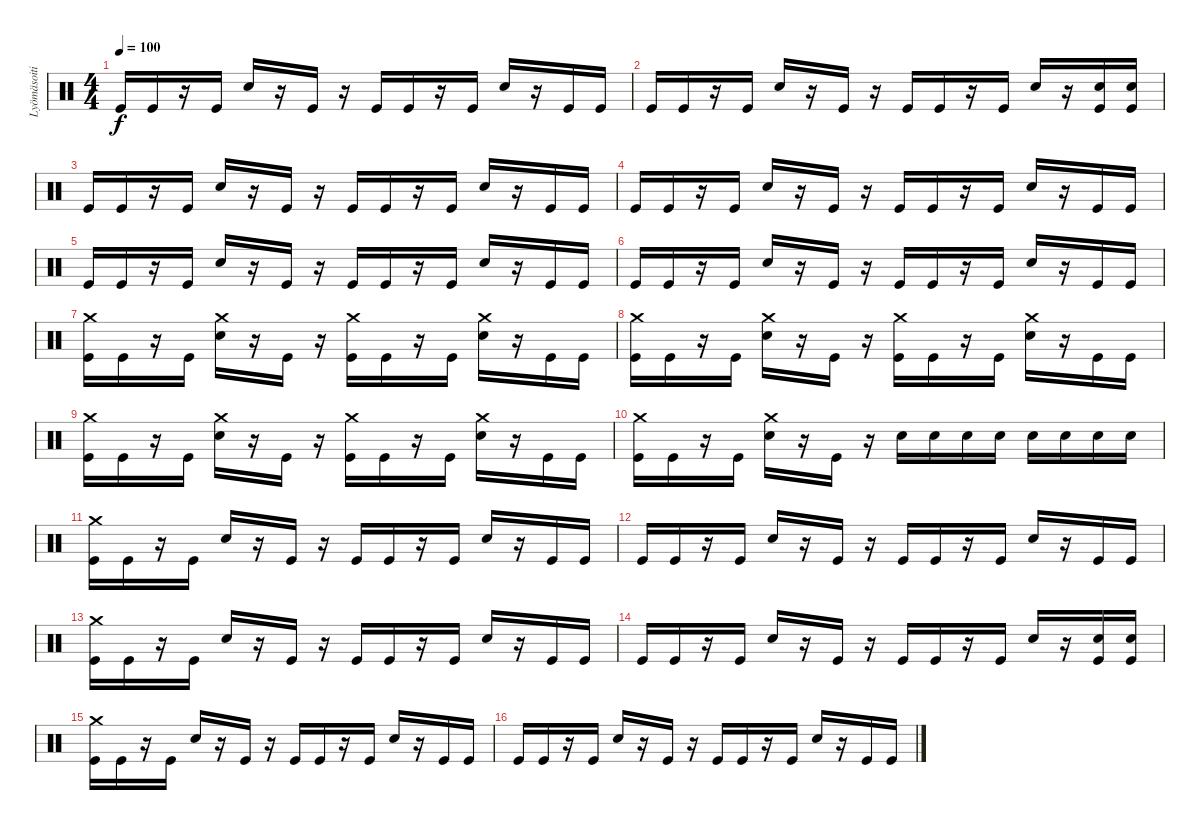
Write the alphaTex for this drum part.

\track ("Lyömäsoitin" "Lyömäsoiti") {instrument percussion}
\staff {score}
\articulation defaults
\ts (4 4)
\tempo 100
\clef neutral
\ks c "Kick (hit)".16{dy f} "Kick (hit)".16
r.16 "Kick (hit)".16 "Electric Snare (hit)".16 r.16 "Kick (hit)".16 r.16 "Kick (hit)".16 "Kick (hit)".16 r.16 "Kick (hit)".16 "Electric Snare (hit)".16 r.16 "Kick (hit)".16 "Kick (hit)".16 |
"Kick (hit)".16 "Kick (hit)".16 r.16 "Kick (hit)".16 "Electric Snare (hit)".16 r.16 "Kick (hit)".16 r.16 "Kick (hit)".16 "Kick (hit)".16 r.16 "Kick (hit)".16 "Electric Snare (hit)".16 r.16 ("Kick (hit)" "Electric Snare (hit)").16 ("Kick (hit)" "Electric Snare (hit)").16 |
"Kick (hit)".16 "Kick (hit)".16 r.16 "Kick (hit)".16 "Electric Snare (hit)".16 r.16 "Kick (hit)".16 r.16 "Kick (hit)".16 "Kick (hit)".16 r.16 "Kick (hit)".16 "Electric Snare (hit)".16 r.16 "Kick (hit)".16 "Kick (hit)".16 |
"Kick (hit)".16 "Kick (hit)".16 r.16 "Kick (hit)".16 "Electric Snare (hit)".16 r.16 "Kick (hit)".16 r.16 "Kick (hit)".16 "Kick (hit)".16 r.16 "Kick (hit)".16 "Electric Snare (hit)".16 r.16 "Kick (hit)".16 "Kick (hit)".16 |
"Kick (hit)".16 "Kick (hit)".16 r.16 "Kick (hit)".16 "Electric Snare (hit)".16 r.16 "Kick (hit)".16 r.16 "Kick (hit)".16 "Kick (hit)".16 r.16 "Kick (hit)".16 "Electric Snare (hit)".16 r.16 "Kick (hit)".16 "Kick (hit)".16 |
"Kick (hit)".16 "Kick (hit)".16 r.16 "Kick (hit)".16 "Electric Snare (hit)".16 r.16 "Kick (hit)".16 r.16 "Kick (hit)".16 "Kick (hit)".16 r.16 "Kick (hit)".16 "Electric Snare (hit)".16 r.16 "Kick (hit)".16 "Kick (hit)".16 |
("Kick (hit)" "Crash medium (hit)").16 "Kick (hit)".16 r.16 "Kick (hit)".16 ("Electric Snare (hit)" "Crash medium (hit)").16 r.16 "Kick (hit)".16 r.16 ("Kick (hit)" "Crash medium (hit)").16 "Kick (hit)".16 r.16 "Kick (hit)".16 ("Electric Snare (hit)" "Crash medium (hit)").16 r.16 "Kick (hit)".16 "Kick (hit)".16 |
("Kick (hit)" "Crash medium (hit)").16 "Kick (hit)".16 r.16 "Kick (hit)".16 ("Electric Snare (hit)" "Crash medium (hit)").16 r.16 "Kick (hit)".16 r.16 ("Kick (hit)" "Crash medium (hit)").16 "Kick (hit)".16 r.16 "Kick (hit)".16 ("Electric Snare (hit)" "Crash medium (hit)").16 r.16 "Kick (hit)".16 "Kick (hit)".16 |
("Kick (hit)" "Crash medium (hit)").16 "Kick (hit)".16 r.16 "Kick (hit)".16 ("Electric Snare (hit)" "Crash medium (hit)").16 r.16 "Kick (hit)".16 r.16 ("Kick (hit)" "Crash medium (hit)").16 "Kick (hit)".16 r.16 "Kick (hit)".16 ("Electric Snare (hit)" "Crash medium (hit)").16 r.16 "Kick (hit)".16 "Kick (hit)".16 |
("Kick (hit)" "Crash medium (hit)").16 "Kick (hit)".16 r.16 "Kick (hit)".16 ("Electric Snare (hit)" "Crash medium (hit)").16 r.16 "Kick (hit)".16 r.16 "Electric Snare (hit)".16 "Electric Snare (hit)".16 "Electric Snare (hit)".16 "Electric Snare (hit)".16 "Electric Snare (hit)".16 "Electric Snare (hit)".16 "Electric Snare (hit)".16 "Electric Snare (hit)".16 |
("Crash medium (hit)" "Kick (hit)").16 "Kick (hit)".16 r.16 "Kick (hit)".16 "Electric Snare (hit)".16 r.16 "Kick (hit)".16 r.16 "Kick (hit)".16 "Kick (hit)".16 r.16 "Kick (hit)".16 "Electric Snare (hit)".16 r.16 "Kick (hit)".16 "Kick (hit)".16 |
"Kick (hit)".16 "Kick (hit)".16 r.16 "Kick (hit)".16 "Electric Snare (hit)".16 r.16 "Kick (hit)".16 r.16 "Kick (hit)".16 "Kick (hit)".16 r.16 "Kick (hit)".16 "Electric Snare (hit)".16 r.16 "Kick (hit)".16 "Kick (hit)".16 |
("Crash medium (hit)" "Kick (hit)").16 "Kick (hit)".16 r.16 "Kick (hit)".16 "Electric Snare (hit)".16 r.16 "Kick (hit)".16 r.16 "Kick (hit)".16 "Kick (hit)".16 r.16 "Kick (hit)".16 "Electric Snare (hit)".16 r.16 "Kick (hit)".16 "Kick (hit)".16 |
"Kick (hit)".16 "Kick (hit)".16 r.16 "Kick (hit)".16 "Electric Snare (hit)".16 r.16 "Kick (hit)".16 r.16 "Kick (hit)".16 "Kick (hit)".16 r.16 "Kick (hit)".16 "Electric Snare (hit)".16 r.16 ("Kick (hit)" "Electric Snare (hit)").16 ("Kick (hit)" "Electric Snare (hit)").16 |
("Crash medium (hit)" "Kick (hit)").16 "Kick (hit)".16 r.16 "Kick (hit)".16 "Electric Snare (hit)".16 r.16 "Kick (hit)".16 r.16 "Kick (hit)".16 "Kick (hit)".16 r.16 "Kick (hit)".16 "Electric Snare (hit)".16 r.16 "Kick (hit)".16 "Kick (hit)".16 |
"Kick (hit)".16 "Kick (hit)".16 r.16 "Kick (hit)".16 "Electric Snare (hit)".16 r.16 "Kick (hit)".16 r.16 "Kick (hit)".16 "Kick (hit)".16 r.16 "Kick (hit)".16 "Electric Snare (hit)".16 r.16 "Kick (hit)".16 "Kick (hit)".16
